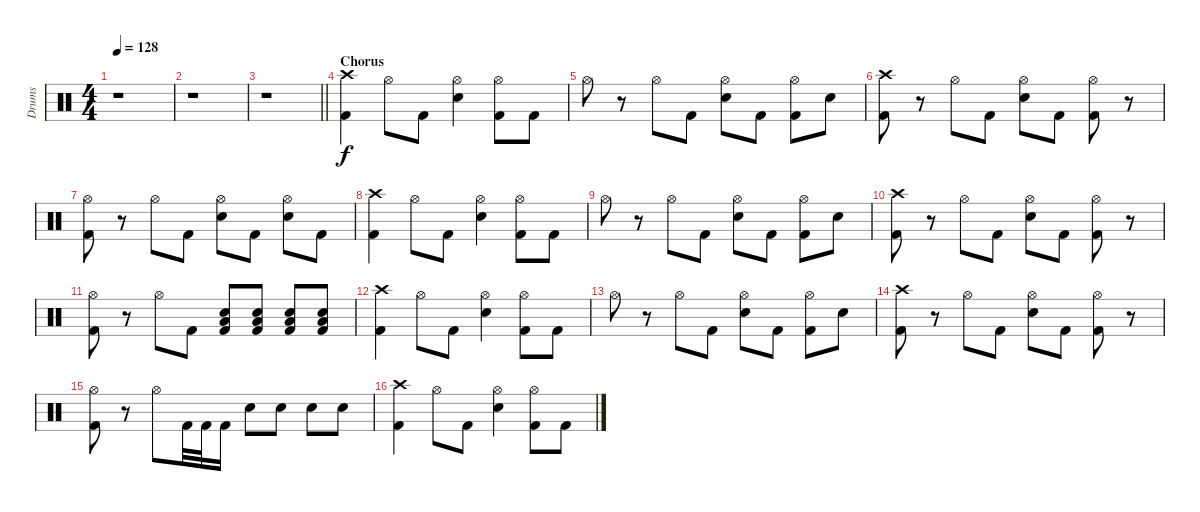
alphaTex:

\track ("Drums" "Drums") {instrument percussion}
\staff {score}
\articulation defaults
\ts (4 4)
\tempo 128
\clef neutral
\ks c
r.1{dy f} |
r.1 |
\barLineRight lightlight
r.1 |
\section ("" "Chorus")
("Crash high (hit)" "Kick (hit) 2").4 "Hi-Hat (open)".8 "Kick (hit) 2".8 ("Hi-Hat (open)" "Electric Snare (hit)").4 ("Hi-Hat (open)" "Kick (hit) 2").8 "Kick (hit) 2".8 |
"Hi-Hat (open)".8 r.8 "Hi-Hat (open)".8 "Kick (hit) 2".8 ("Hi-Hat (open)" "Electric Snare (hit)").8 "Kick (hit) 2".8 ("Hi-Hat (open)" "Kick (hit) 2").8 "Electric Snare (hit)".8 |
("Crash high (hit)" "Kick (hit) 2").8 r.8 "Hi-Hat (open)".8 "Kick (hit) 2".8 ("Hi-Hat (open)" "Electric Snare (hit)").8 "Kick (hit) 2".8 ("Hi-Hat (open)" "Kick (hit) 2").8 r.8 |
("Hi-Hat (open)" "Kick (hit) 2").8 r.8 "Hi-Hat (open)".8 "Kick (hit) 2".8 ("Hi-Hat (open)" "Electric Snare (hit)").8 "Kick (hit) 2".8 ("Hi-Hat (open)" "Electric Snare (hit)").8 "Kick (hit) 2".8 |
("Crash high (hit)" "Kick (hit) 2").4 "Hi-Hat (open)".8 "Kick (hit) 2".8 ("Hi-Hat (open)" "Electric Snare (hit)").4 ("Hi-Hat (open)" "Kick (hit) 2").8 "Kick (hit) 2".8 |
"Hi-Hat (open)".8 r.8 "Hi-Hat (open)".8 "Kick (hit) 2".8 ("Hi-Hat (open)" "Electric Snare (hit)").8 "Kick (hit) 2".8 ("Hi-Hat (open)" "Kick (hit) 2").8 "Electric Snare (hit)".8 |
("Crash high (hit)" "Kick (hit) 2").8 r.8 "Hi-Hat (open)".8 "Kick (hit) 2".8 ("Hi-Hat (open)" "Electric Snare (hit)").8 "Kick (hit) 2".8 ("Hi-Hat (open)" "Kick (hit) 2").8 r.8 |
("Hi-Hat (open)" "Kick (hit) 2").8 r.8 "Hi-Hat (open)".8 "Kick (hit) 2".8 ("Electric Snare (hit)" "Low Floor Tom (hit)" "Kick (hit) 2").8 ("Electric Snare (hit)" "Low Floor Tom (hit)" "Kick (hit) 2").8 ("Electric Snare (hit)" "Low Floor Tom (hit)" "Kick (hit) 2").8 ("Electric Snare (hit)" "Low Floor Tom (hit)" "Kick (hit) 2").8 |
("Crash high (hit)" "Kick (hit) 2").4 "Hi-Hat (open)".8 "Kick (hit) 2".8 ("Hi-Hat (open)" "Electric Snare (hit)").4 ("Hi-Hat (open)" "Kick (hit) 2").8 "Kick (hit) 2".8 |
"Hi-Hat (open)".8 r.8 "Hi-Hat (open)".8 "Kick (hit) 2".8 ("Hi-Hat (open)" "Electric Snare (hit)").8 "Kick (hit) 2".8 ("Hi-Hat (open)" "Kick (hit) 2").8 "Electric Snare (hit)".8 |
("Crash high (hit)" "Kick (hit) 2").8 r.8 "Hi-Hat (open)".8 "Kick (hit) 2".8 ("Hi-Hat (open)" "Electric Snare (hit)").8 "Kick (hit) 2".8 ("Hi-Hat (open)" "Kick (hit) 2").8 r.8 |
("Hi-Hat (open)" "Kick (hit) 2").8 r.8 "Hi-Hat (open)".8 "Kick (hit) 2".32 "Kick (hit) 2".32 "Kick (hit) 2".16 "Electric Snare (hit)".8 "Electric Snare (hit)".8 "Electric Snare (hit)".8 "Electric Snare (hit)".8 |
("Crash high (hit)" "Kick (hit) 2").4 "Hi-Hat (open)".8 "Kick (hit) 2".8 ("Hi-Hat (open)" "Electric Snare (hit)").4 ("Hi-Hat (open)" "Kick (hit) 2").8 "Kick (hit) 2".8
